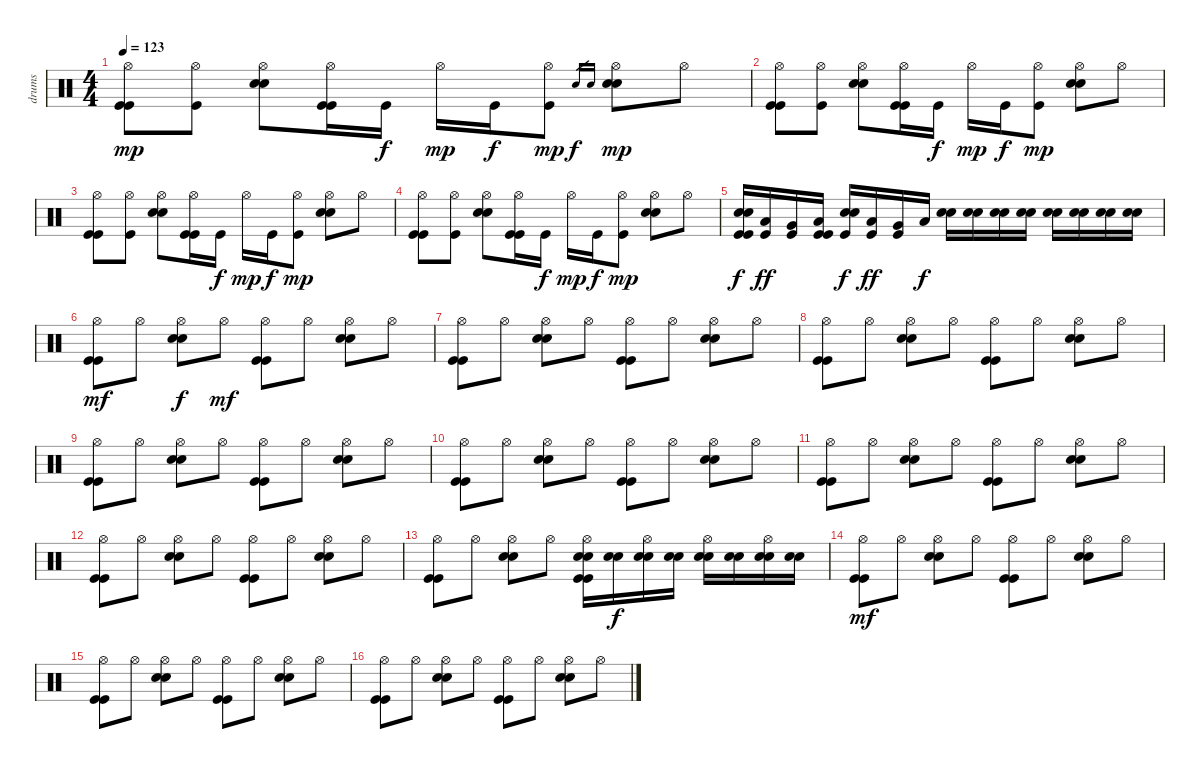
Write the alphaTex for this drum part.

\track ("drums" "drums") {instrument percussion}
\staff {score}
\articulation defaults
\ts (4 4)
\tempo 123
\clef neutral
\ks c
("Hi-Hat (open)" "Kick (hit)" "Kick (hit)").8{dy mp} ("Hi-Hat (open)" "Kick (hit)").8 ("Hi-Hat (open)" "Snare (hit) 2" "Snare (hit) 2").8 ("Hi-Hat (open)" "Kick (hit)" "Kick (hit)").16 "Kick (hit)".16{dy f} "Hi-Hat (open)".16{dy mp} "Kick (hit)".16{dy f} ("Hi-Hat (open)" "Kick (hit)").8{dy mp} "Snare (hit) 2".16{gr dy f} "Snare (hit) 2".16{gr} ("Hi-Hat (open)" "Snare (hit) 2" "Snare (hit) 2").8{dy mp} "Hi-Hat (open)".8 |
("Hi-Hat (open)" "Kick (hit)" "Kick (hit)").8 ("Hi-Hat (open)" "Kick (hit)").8 ("Hi-Hat (open)" "Snare (hit) 2" "Snare (hit) 2").8 ("Hi-Hat (open)" "Kick (hit)" "Kick (hit)").16 "Kick (hit)".16{dy f} "Hi-Hat (open)".16{dy mp} "Kick (hit)".16{dy f} ("Hi-Hat (open)" "Kick (hit)").8{dy mp} ("Hi-Hat (open)" "Snare (hit) 2" "Snare (hit) 2").8 "Hi-Hat (open)".8 |
("Hi-Hat (open)" "Kick (hit)" "Kick (hit)").8 ("Hi-Hat (open)" "Kick (hit)").8 ("Hi-Hat (open)" "Snare (hit) 2" "Snare (hit) 2").8 ("Hi-Hat (open)" "Kick (hit)" "Kick (hit)").16 "Kick (hit)".16{dy f} "Hi-Hat (open)".16{dy mp} "Kick (hit)".16{dy f} ("Hi-Hat (open)" "Kick (hit)").8{dy mp} ("Hi-Hat (open)" "Snare (hit) 2" "Snare (hit) 2").8 "Hi-Hat (open)".8 |
("Hi-Hat (open)" "Kick (hit)" "Kick (hit)").8 ("Hi-Hat (open)" "Kick (hit)").8 ("Hi-Hat (open)" "Snare (hit) 2" "Snare (hit) 2").8 ("Hi-Hat (open)" "Kick (hit)" "Kick (hit)").16 "Kick (hit)".16{dy f} "Hi-Hat (open)".16{dy mp} "Kick (hit)".16{dy f} ("Hi-Hat (open)" "Kick (hit)").8{dy mp} ("Hi-Hat (open)" "Snare (hit) 2" "Snare (hit) 2").8 "Hi-Hat (open)".8 |
("Snare (hit) 2" "Snare (hit) 2" "Kick (hit)" "Kick (hit)").16{dy f} ("Low Tom (hit)" "Kick (hit)").16{dy ff} ("Very Low Tom (hit)" "Kick (hit)").16 ("Low Floor Tom (hit)" "Kick (hit)" "Kick (hit)").16 ("Snare (hit) 2" "Snare (hit) 2" "Kick (hit)").16{dy f} ("Low Tom (hit)" "Kick (hit)").16{dy ff} ("Very Low Tom (hit)" "Kick (hit)").16 "Low Floor Tom (hit)".16{dy f} ("Snare (hit) 2" "Snare (hit) 2").16 ("Snare (hit) 2" "Snare (hit) 2").16 ("Snare (hit) 2" "Snare (hit) 2").16 ("Snare (hit) 2" "Snare (hit) 2").16 ("Snare (hit) 2" "Snare (hit) 2").16 ("Snare (hit) 2" "Snare (hit) 2").16 ("Snare (hit) 2" "Snare (hit) 2").16 ("Snare (hit) 2" "Snare (hit) 2").16 |
("Hi-Hat (open)" "Kick (hit)" "Kick (hit)").8{dy mf} "Hi-Hat (open)".8 ("Hi-Hat (open)" "Snare (hit) 2" "Snare (hit) 2").8{dy f} "Hi-Hat (open)".8{dy mf} ("Hi-Hat (open)" "Kick (hit)" "Kick (hit)").8 "Hi-Hat (open)".8 ("Hi-Hat (open)" "Snare (hit) 2" "Snare (hit) 2").8 "Hi-Hat (open)".8 |
("Hi-Hat (open)" "Kick (hit)" "Kick (hit)").8 "Hi-Hat (open)".8 ("Hi-Hat (open)" "Snare (hit) 2" "Snare (hit) 2").8 "Hi-Hat (open)".8 ("Hi-Hat (open)" "Kick (hit)" "Kick (hit)").8 "Hi-Hat (open)".8 ("Hi-Hat (open)" "Snare (hit) 2" "Snare (hit) 2").8 "Hi-Hat (open)".8 |
("Hi-Hat (open)" "Kick (hit)" "Kick (hit)").8 "Hi-Hat (open)".8 ("Hi-Hat (open)" "Snare (hit) 2" "Snare (hit) 2").8 "Hi-Hat (open)".8 ("Hi-Hat (open)" "Kick (hit)" "Kick (hit)").8 "Hi-Hat (open)".8 ("Hi-Hat (open)" "Snare (hit) 2" "Snare (hit) 2").8 "Hi-Hat (open)".8 |
("Hi-Hat (open)" "Kick (hit)" "Kick (hit)").8 "Hi-Hat (open)".8 ("Hi-Hat (open)" "Snare (hit) 2" "Snare (hit) 2").8 "Hi-Hat (open)".8 ("Hi-Hat (open)" "Kick (hit)" "Kick (hit)").8 "Hi-Hat (open)".8 ("Hi-Hat (open)" "Snare (hit) 2" "Snare (hit) 2").8 "Hi-Hat (open)".8 |
("Hi-Hat (open)" "Kick (hit)" "Kick (hit)").8 "Hi-Hat (open)".8 ("Hi-Hat (open)" "Snare (hit) 2" "Snare (hit) 2").8 "Hi-Hat (open)".8 ("Hi-Hat (open)" "Kick (hit)" "Kick (hit)").8 "Hi-Hat (open)".8 ("Hi-Hat (open)" "Snare (hit) 2" "Snare (hit) 2").8 "Hi-Hat (open)".8 |
("Hi-Hat (open)" "Kick (hit)" "Kick (hit)").8 "Hi-Hat (open)".8 ("Hi-Hat (open)" "Snare (hit) 2" "Snare (hit) 2").8 "Hi-Hat (open)".8 ("Hi-Hat (open)" "Kick (hit)" "Kick (hit)").8 "Hi-Hat (open)".8 ("Hi-Hat (open)" "Snare (hit) 2" "Snare (hit) 2").8 "Hi-Hat (open)".8 |
("Hi-Hat (open)" "Kick (hit)" "Kick (hit)").8 "Hi-Hat (open)".8 ("Hi-Hat (open)" "Snare (hit) 2" "Snare (hit) 2").8 "Hi-Hat (open)".8 ("Hi-Hat (open)" "Kick (hit)" "Kick (hit)").8 "Hi-Hat (open)".8 ("Hi-Hat (open)" "Snare (hit) 2" "Snare (hit) 2").8 "Hi-Hat (open)".8 |
("Hi-Hat (open)" "Kick (hit)" "Kick (hit)").8 "Hi-Hat (open)".8 ("Hi-Hat (open)" "Snare (hit) 2" "Snare (hit) 2").8 "Hi-Hat (open)".8 ("Hi-Hat (open)" "Snare (hit) 2" "Snare (hit) 2" "Kick (hit)" "Kick (hit)").16 ("Snare (hit) 2" "Snare (hit) 2").16{dy f} ("Hi-Hat (open)" "Snare (hit) 2" "Snare (hit) 2").16 ("Snare (hit) 2" "Snare (hit) 2").16 ("Hi-Hat (open)" "Snare (hit) 2" "Snare (hit) 2").16 ("Snare (hit) 2" "Snare (hit) 2").16 ("Hi-Hat (open)" "Snare (hit) 2" "Snare (hit) 2").16 ("Snare (hit) 2" "Snare (hit) 2").16 |
("Hi-Hat (open)" "Kick (hit)" "Kick (hit)").8{dy mf} "Hi-Hat (open)".8 ("Hi-Hat (open)" "Snare (hit) 2" "Snare (hit) 2").8 "Hi-Hat (open)".8 ("Hi-Hat (open)" "Kick (hit)" "Kick (hit)").8 "Hi-Hat (open)".8 ("Hi-Hat (open)" "Snare (hit) 2" "Snare (hit) 2").8 "Hi-Hat (open)".8 |
("Hi-Hat (open)" "Kick (hit)" "Kick (hit)").8 "Hi-Hat (open)".8 ("Hi-Hat (open)" "Snare (hit) 2" "Snare (hit) 2").8 "Hi-Hat (open)".8 ("Hi-Hat (open)" "Kick (hit)" "Kick (hit)").8 "Hi-Hat (open)".8 ("Hi-Hat (open)" "Snare (hit) 2" "Snare (hit) 2").8 "Hi-Hat (open)".8 |
("Hi-Hat (open)" "Kick (hit)" "Kick (hit)").8 "Hi-Hat (open)".8 ("Hi-Hat (open)" "Snare (hit) 2" "Snare (hit) 2").8 "Hi-Hat (open)".8 ("Hi-Hat (open)" "Kick (hit)" "Kick (hit)").8 "Hi-Hat (open)".8 ("Hi-Hat (open)" "Snare (hit) 2" "Snare (hit) 2").8 "Hi-Hat (open)".8
